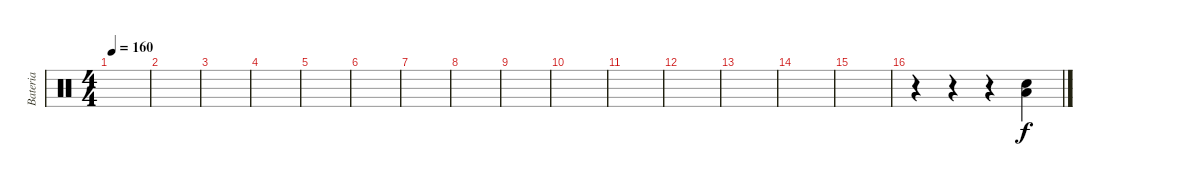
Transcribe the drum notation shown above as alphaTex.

\track ("Bateria" "Bateria") {instrument percussion}
\staff {score}
\articulation defaults
\ts (4 4)
\tempo 160
\clef neutral
\ks c
|
|
|
|
|
|
|
|
|
|
|
|
|
|
|
r.4 r.4 r.4 ("Low Floor Tom (hit)" "Snare (hit) 2").4
